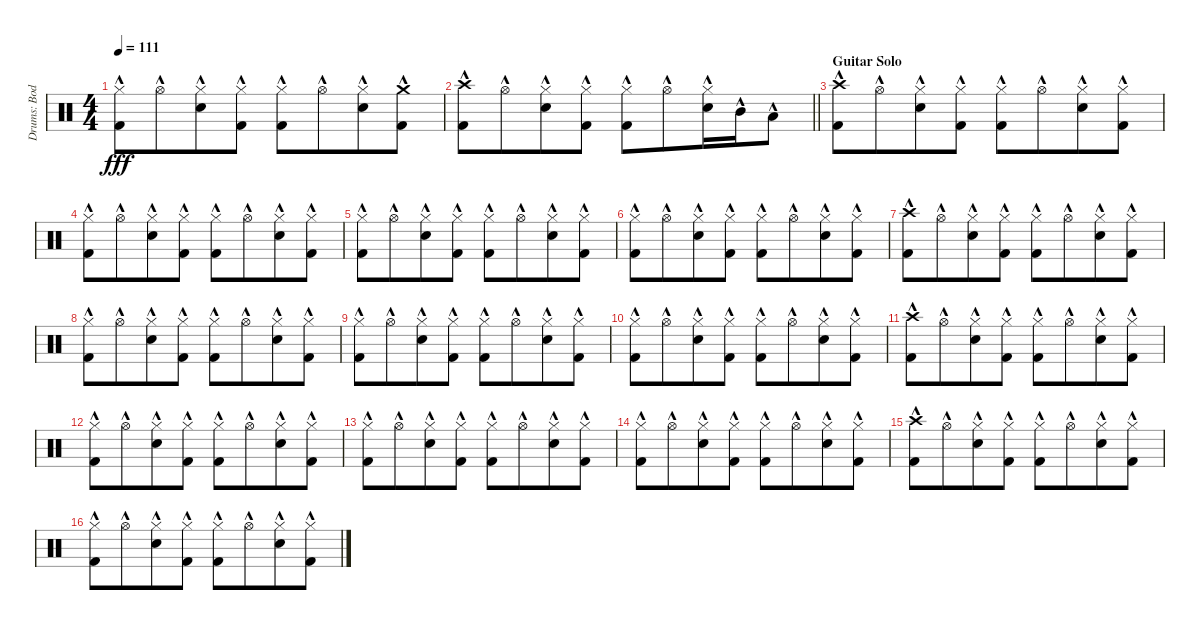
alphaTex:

\track ("Drums: Bodo" "Drums: Bod") {instrument percussion}
\staff {score}
\articulation defaults
\ts (4 4)
\tempo 111
\clef neutral
\ks c
("Hi-Hat (closed)"{hac} "Kick (hit) 2"{hac}).8{dy fff} "Hi-Hat (open)"{hac}.8{beam merge} ("Hi-Hat (closed)"{hac} "Electric Snare (hit)"{hac}).8 ("Hi-Hat (closed)"{hac} "Kick (hit) 2"{hac}).8 ("Hi-Hat (closed)"{hac} "Kick (hit) 2"{hac}).8 "Hi-Hat (open)"{hac}.8{beam merge} ("Hi-Hat (closed)"{hac} "Electric Snare (hit)"{hac}).8 ("Crash medium (hit)"{hac} "Kick (hit) 2"{hac}).8 |
\barLineRight lightlight
("Crash high (hit)"{hac} "Kick (hit) 2"{hac}).8 "Hi-Hat (open)"{hac}.8{beam merge} ("Hi-Hat (closed)"{hac} "Electric Snare (hit)"{hac}).8 ("Hi-Hat (closed)"{hac} "Kick (hit) 2"{hac}).8 ("Hi-Hat (closed)"{hac} "Kick (hit) 2"{hac}).8 "Hi-Hat (open)"{hac}.8{beam merge} ("Hi-Hat (closed)"{hac} "Electric Snare (hit)"{hac}).16 "Mid Tom (hit)"{hac}.16 "Low Tom (hit)"{hac}.8 |
\section ("" "Guitar Solo")
("Crash high (hit)"{hac} "Kick (hit) 2"{hac}).8 "Hi-Hat (open)"{hac}.8{beam merge} ("Hi-Hat (closed)"{hac} "Electric Snare (hit)"{hac}).8 ("Hi-Hat (closed)"{hac} "Kick (hit) 2"{hac}).8 ("Hi-Hat (closed)"{hac} "Kick (hit) 2"{hac}).8 "Hi-Hat (open)"{hac}.8{beam merge} ("Hi-Hat (closed)"{hac} "Electric Snare (hit)"{hac}).8 ("Hi-Hat (closed)"{hac} "Kick (hit) 2"{hac}).8 |
("Hi-Hat (closed)"{hac} "Kick (hit) 2"{hac}).8 "Hi-Hat (open)"{hac}.8{beam merge} ("Hi-Hat (closed)"{hac} "Electric Snare (hit)"{hac}).8 ("Hi-Hat (closed)"{hac} "Kick (hit) 2"{hac}).8 ("Hi-Hat (closed)"{hac} "Kick (hit) 2"{hac}).8 "Hi-Hat (open)"{hac}.8{beam merge} ("Hi-Hat (closed)"{hac} "Electric Snare (hit)"{hac}).8 ("Hi-Hat (closed)"{hac} "Kick (hit) 2"{hac}).8 |
("Hi-Hat (closed)"{hac} "Kick (hit) 2"{hac}).8 "Hi-Hat (open)"{hac}.8{beam merge} ("Hi-Hat (closed)"{hac} "Electric Snare (hit)"{hac}).8 ("Hi-Hat (closed)"{hac} "Kick (hit) 2"{hac}).8 ("Hi-Hat (closed)"{hac} "Kick (hit) 2"{hac}).8 "Hi-Hat (open)"{hac}.8{beam merge} ("Hi-Hat (closed)"{hac} "Electric Snare (hit)"{hac}).8 ("Hi-Hat (closed)"{hac} "Kick (hit) 2"{hac}).8 |
("Hi-Hat (closed)"{hac} "Kick (hit) 2"{hac}).8 "Hi-Hat (open)"{hac}.8{beam merge} ("Hi-Hat (closed)"{hac} "Electric Snare (hit)"{hac}).8 ("Hi-Hat (closed)"{hac} "Kick (hit) 2"{hac}).8 ("Hi-Hat (closed)"{hac} "Kick (hit) 2"{hac}).8 "Hi-Hat (open)"{hac}.8{beam merge} ("Hi-Hat (closed)"{hac} "Electric Snare (hit)"{hac}).8 ("Hi-Hat (closed)"{hac} "Kick (hit) 2"{hac}).8 |
("Crash high (hit)"{hac} "Kick (hit) 2"{hac}).8 "Hi-Hat (open)"{hac}.8{beam merge} ("Hi-Hat (closed)"{hac} "Electric Snare (hit)"{hac}).8 ("Hi-Hat (closed)"{hac} "Kick (hit) 2"{hac}).8 ("Hi-Hat (closed)"{hac} "Kick (hit) 2"{hac}).8 "Hi-Hat (open)"{hac}.8{beam merge} ("Hi-Hat (closed)"{hac} "Electric Snare (hit)"{hac}).8 ("Hi-Hat (closed)"{hac} "Kick (hit) 2"{hac}).8 |
("Hi-Hat (closed)"{hac} "Kick (hit) 2"{hac}).8 "Hi-Hat (open)"{hac}.8{beam merge} ("Hi-Hat (closed)"{hac} "Electric Snare (hit)"{hac}).8 ("Hi-Hat (closed)"{hac} "Kick (hit) 2"{hac}).8 ("Hi-Hat (closed)"{hac} "Kick (hit) 2"{hac}).8 "Hi-Hat (open)"{hac}.8{beam merge} ("Hi-Hat (closed)"{hac} "Electric Snare (hit)"{hac}).8 ("Hi-Hat (closed)"{hac} "Kick (hit) 2"{hac}).8 |
("Hi-Hat (closed)"{hac} "Kick (hit) 2"{hac}).8 "Hi-Hat (open)"{hac}.8{beam merge} ("Hi-Hat (closed)"{hac} "Electric Snare (hit)"{hac}).8 ("Hi-Hat (closed)"{hac} "Kick (hit) 2"{hac}).8 ("Hi-Hat (closed)"{hac} "Kick (hit) 2"{hac}).8 "Hi-Hat (open)"{hac}.8{beam merge} ("Hi-Hat (closed)"{hac} "Electric Snare (hit)"{hac}).8 ("Hi-Hat (closed)"{hac} "Kick (hit) 2"{hac}).8 |
("Hi-Hat (closed)"{hac} "Kick (hit) 2"{hac}).8 "Hi-Hat (open)"{hac}.8{beam merge} ("Hi-Hat (closed)"{hac} "Electric Snare (hit)"{hac}).8 ("Hi-Hat (closed)"{hac} "Kick (hit) 2"{hac}).8 ("Hi-Hat (closed)"{hac} "Kick (hit) 2"{hac}).8 "Hi-Hat (open)"{hac}.8{beam merge} ("Hi-Hat (closed)"{hac} "Electric Snare (hit)"{hac}).8 ("Hi-Hat (closed)"{hac} "Kick (hit) 2"{hac}).8 |
("Crash high (hit)"{hac} "Kick (hit) 2"{hac}).8 "Hi-Hat (open)"{hac}.8{beam merge} ("Hi-Hat (closed)"{hac} "Electric Snare (hit)"{hac}).8 ("Hi-Hat (closed)"{hac} "Kick (hit) 2"{hac}).8 ("Hi-Hat (closed)"{hac} "Kick (hit) 2"{hac}).8 "Hi-Hat (open)"{hac}.8{beam merge} ("Hi-Hat (closed)"{hac} "Electric Snare (hit)"{hac}).8 ("Hi-Hat (closed)"{hac} "Kick (hit) 2"{hac}).8 |
("Hi-Hat (closed)"{hac} "Kick (hit) 2"{hac}).8 "Hi-Hat (open)"{hac}.8{beam merge} ("Hi-Hat (closed)"{hac} "Electric Snare (hit)"{hac}).8 ("Hi-Hat (closed)"{hac} "Kick (hit) 2"{hac}).8 ("Hi-Hat (closed)"{hac} "Kick (hit) 2"{hac}).8 "Hi-Hat (open)"{hac}.8{beam merge} ("Hi-Hat (closed)"{hac} "Electric Snare (hit)"{hac}).8 ("Hi-Hat (closed)"{hac} "Kick (hit) 2"{hac}).8 |
("Hi-Hat (closed)"{hac} "Kick (hit) 2"{hac}).8 "Hi-Hat (open)"{hac}.8{beam merge} ("Hi-Hat (closed)"{hac} "Electric Snare (hit)"{hac}).8 ("Hi-Hat (closed)"{hac} "Kick (hit) 2"{hac}).8 ("Hi-Hat (closed)"{hac} "Kick (hit) 2"{hac}).8 "Hi-Hat (open)"{hac}.8{beam merge} ("Hi-Hat (closed)"{hac} "Electric Snare (hit)"{hac}).8 ("Hi-Hat (closed)"{hac} "Kick (hit) 2"{hac}).8 |
("Hi-Hat (closed)"{hac} "Kick (hit) 2"{hac}).8 "Hi-Hat (open)"{hac}.8{beam merge} ("Hi-Hat (closed)"{hac} "Electric Snare (hit)"{hac}).8 ("Hi-Hat (closed)"{hac} "Kick (hit) 2"{hac}).8 ("Hi-Hat (closed)"{hac} "Kick (hit) 2"{hac}).8 "Hi-Hat (open)"{hac}.8{beam merge} ("Hi-Hat (closed)"{hac} "Electric Snare (hit)"{hac}).8 ("Hi-Hat (closed)"{hac} "Kick (hit) 2"{hac}).8 |
("Crash high (hit)"{hac} "Kick (hit) 2"{hac}).8 "Hi-Hat (open)"{hac}.8{beam merge} ("Hi-Hat (closed)"{hac} "Electric Snare (hit)"{hac}).8 ("Hi-Hat (closed)"{hac} "Kick (hit) 2"{hac}).8 ("Hi-Hat (closed)"{hac} "Kick (hit) 2"{hac}).8 "Hi-Hat (open)"{hac}.8{beam merge} ("Hi-Hat (closed)"{hac} "Electric Snare (hit)"{hac}).8 ("Hi-Hat (closed)"{hac} "Kick (hit) 2"{hac}).8 |
("Hi-Hat (closed)"{hac} "Kick (hit) 2"{hac}).8 "Hi-Hat (open)"{hac}.8{beam merge} ("Hi-Hat (closed)"{hac} "Electric Snare (hit)"{hac}).8 ("Hi-Hat (closed)"{hac} "Kick (hit) 2"{hac}).8 ("Hi-Hat (closed)"{hac} "Kick (hit) 2"{hac}).8 "Hi-Hat (open)"{hac}.8{beam merge} ("Hi-Hat (closed)"{hac} "Electric Snare (hit)"{hac}).8 ("Hi-Hat (closed)"{hac} "Kick (hit) 2"{hac}).8
